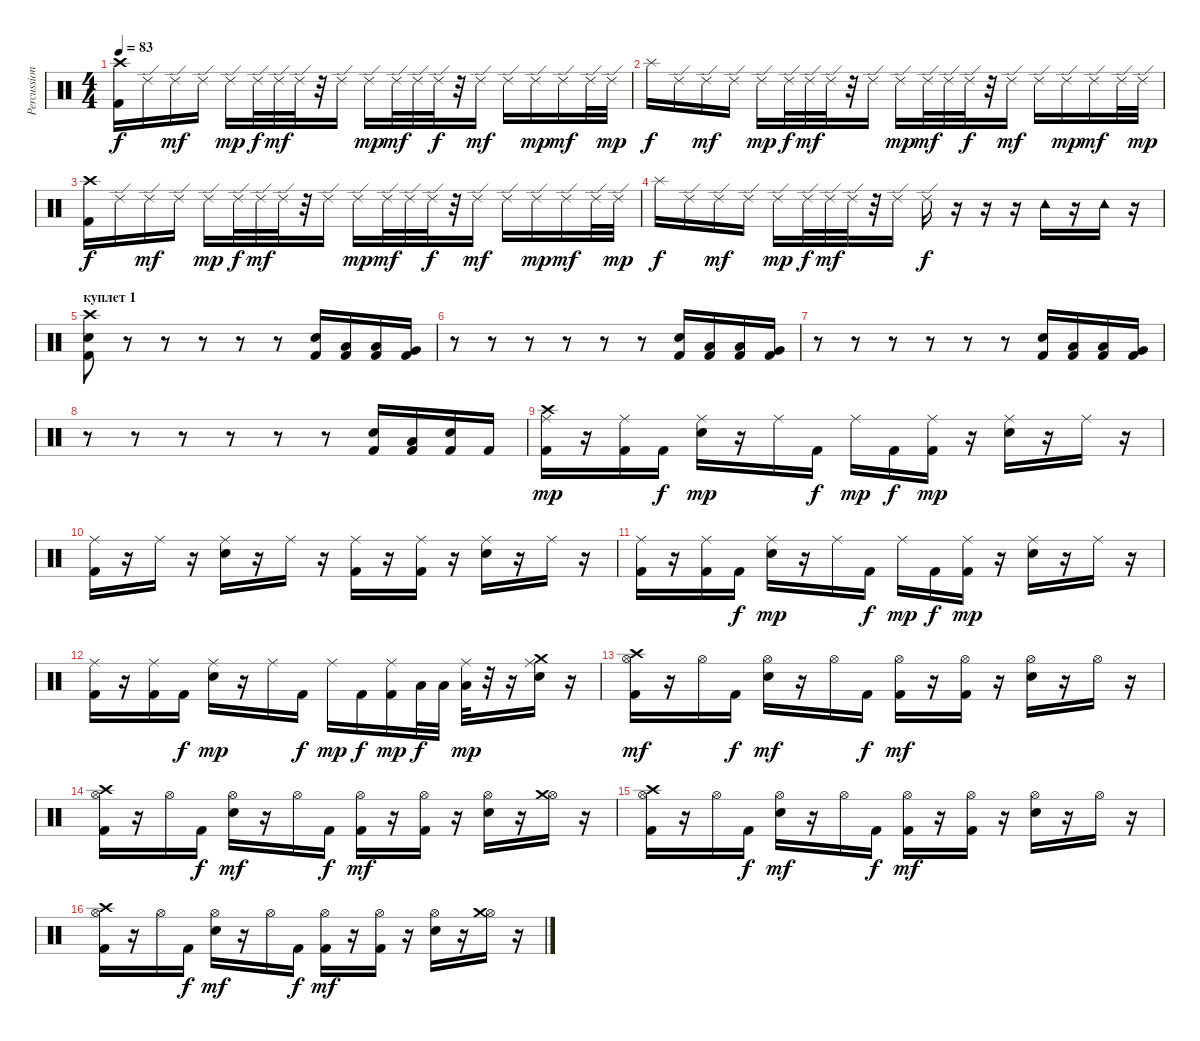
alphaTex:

\track ("Percussion" "Percussion") {instrument percussion}
\staff {score}
\articulation defaults
\ts (4 4)
\tempo 83
\clef neutral
\ks c
("Crash high (hit)" "Kick (hit) 2").16{dy f} "Ride (edge) 2".16 "Ride (edge) 2".16{dy mf} "Ride (edge) 2".16 "Ride (edge) 2".16{dy mp} "Ride (edge) 2".32{dy f} "Ride (edge) 2".32{dy mf} "Ride (edge) 2".32 r.32 "Ride (edge) 2".16 "Ride (edge) 2".16{dy mp} "Ride (edge) 2".32{dy mf} "Ride (edge) 2".32 "Ride (edge) 2".32{dy f} r.32 "Ride (edge) 2".16{dy mf} "Ride (edge) 2".16 "Ride (edge) 2".16{dy mp} "Ride (edge) 2".16{dy mf} "Ride (edge) 2".32 "Ride (edge) 2".32{dy mp} |
"Splash (hit)".16{dy f} "Ride (edge) 2".16 "Ride (edge) 2".16{dy mf} "Ride (edge) 2".16 "Ride (edge) 2".16{dy mp} "Ride (edge) 2".32{dy f} "Ride (edge) 2".32{dy mf} "Ride (edge) 2".32 r.32 "Ride (edge) 2".16 "Ride (edge) 2".16{dy mp} "Ride (edge) 2".32{dy mf} "Ride (edge) 2".32 "Ride (edge) 2".32{dy f} r.32 "Ride (edge) 2".16{dy mf} "Ride (edge) 2".16 "Ride (edge) 2".16{dy mp} "Ride (edge) 2".16{dy mf} "Ride (edge) 2".32 "Ride (edge) 2".32{dy mp} |
("Crash high (hit)" "Kick (hit) 2").16{dy f} "Ride (edge) 2".16 "Ride (edge) 2".16{dy mf} "Ride (edge) 2".16 "Ride (edge) 2".16{dy mp} "Ride (edge) 2".32{dy f} "Ride (edge) 2".32{dy mf} "Ride (edge) 2".32 r.32 "Ride (edge) 2".16 "Ride (edge) 2".16{dy mp} "Ride (edge) 2".32{dy mf} "Ride (edge) 2".32 "Ride (edge) 2".32{dy f} r.32 "Ride (edge) 2".16{dy mf} "Ride (edge) 2".16 "Ride (edge) 2".16{dy mp} "Ride (edge) 2".16{dy mf} "Ride (edge) 2".32 "Ride (edge) 2".32{dy mp} |
"Splash (hit)".16{dy f} "Ride (edge) 2".16 "Ride (edge) 2".16{dy mf} "Ride (edge) 2".16 "Ride (edge) 2".16{dy mp} "Ride (edge) 2".32{dy f} "Ride (edge) 2".32{dy mf} "Ride (edge) 2".32 r.32 "Ride (edge) 2".16 "Ride (edge) 2".16{dy f} r.16 r.16 r.16 "Tambourine (hit)".16 r.16 "Tambourine (hit)".16 r.16 |
\section ("" "куплет 1")
("Crash high (hit)" "Electric Snare (hit)" "Kick (hit) 2").8 r.8 r.8 r.8 r.8 r.8 ("Electric Snare (hit)" "Kick (hit) 2").16 ("Low Tom (hit)" "Kick (hit) 2").16 ("Low Tom (hit)" "Kick (hit) 2").16 ("Very Low Tom (hit)" "Kick (hit) 2").16 |
r.8 r.8 r.8 r.8 r.8 r.8 ("Electric Snare (hit)" "Kick (hit) 2").16 ("Low Tom (hit)" "Kick (hit) 2").16 ("Low Tom (hit)" "Kick (hit) 2").16 ("Very Low Tom (hit)" "Kick (hit) 2").16 |
r.8 r.8 r.8 r.8 r.8 r.8 ("Electric Snare (hit)" "Kick (hit) 2").16 ("Low Tom (hit)" "Kick (hit) 2").16 ("Low Tom (hit)" "Kick (hit) 2").16 ("Very Low Tom (hit)" "Kick (hit) 2").16 |
r.8 r.8 r.8 r.8 r.8 r.8 ("Electric Snare (hit)" "Kick (hit) 2").16 ("Low Tom (hit)" "Kick (hit) 2").16 ("Electric Snare (hit)" "Kick (hit) 2").16 "Kick (hit) 2".16 |
("Ride (middle)" "Crash high (hit)" "Kick (hit) 2").16{dy mp} r.16 ("Ride (middle)" "Kick (hit) 2").16 "Kick (hit) 2".16{dy f} ("Ride (middle)" "Electric Snare (hit)").16{dy mp} r.16 "Ride (middle)".16 "Kick (hit) 2".16{dy f} "Ride (middle)".16{dy mp} "Kick (hit) 2".16{dy f} ("Ride (middle)" "Kick (hit) 2").16{dy mp} r.16 ("Ride (middle)" "Electric Snare (hit)").16 r.16 "Ride (middle)".16 r.16 |
("Ride (middle)" "Kick (hit) 2").16 r.16 "Ride (middle)".16 r.16 ("Ride (middle)" "Electric Snare (hit)").16 r.16 "Ride (middle)".16 r.16 ("Ride (middle)" "Kick (hit) 2").16 r.16 ("Ride (middle)" "Kick (hit) 2").16 r.16 ("Ride (middle)" "Electric Snare (hit)").16 r.16 "Ride (middle)".16 r.16 |
("Ride (middle)" "Kick (hit) 2").16 r.16 ("Ride (middle)" "Kick (hit) 2").16 "Kick (hit) 2".16{dy f} ("Ride (middle)" "Electric Snare (hit)").16{dy mp} r.16 "Ride (middle)".16 "Kick (hit) 2".16{dy f} "Ride (middle)".16{dy mp} "Kick (hit) 2".16{dy f} ("Ride (middle)" "Kick (hit) 2").16{dy mp} r.16 ("Ride (middle)" "Electric Snare (hit)").16 r.16 "Ride (middle)".16 r.16 |
("Ride (middle)" "Kick (hit) 2").16 r.16 ("Ride (middle)" "Kick (hit) 2").16 "Kick (hit) 2".16{dy f} ("Ride (middle)" "Electric Snare (hit)").16{dy mp} r.16 "Ride (middle)".16 "Kick (hit) 2".16{dy f} "Ride (middle)".16{dy mp} "Kick (hit) 2".16{dy f} ("Ride (middle)" "Kick (hit) 2").16{dy mp} "Low Tom (hit)".32{dy f} "Low Tom (hit)".32 ("Ride (middle)" "Low Tom (hit)").32{dy mp} r.32 r.16 ("Ride (middle)" "Crash medium (hit)" "Electric Snare (hit)").16 r.16 |
("Hi-Hat (open)" "Crash high (hit)" "Kick (hit) 2").16{dy mf} r.16 "Hi-Hat (open)".16 "Kick (hit) 2".16{dy f} ("Hi-Hat (open)" "Electric Snare (hit)").16{dy mf} r.16 "Hi-Hat (open)".16 "Kick (hit) 2".16{dy f} ("Hi-Hat (open)" "Kick (hit) 2").16{dy mf} r.16 ("Hi-Hat (open)" "Kick (hit) 2").16 r.16 ("Hi-Hat (open)" "Electric Snare (hit)").16 r.16 "Hi-Hat (open)".16 r.16 |
("Hi-Hat (open)" "Crash high (hit)" "Kick (hit) 2").16 r.16 "Hi-Hat (open)".16 "Kick (hit) 2".16{dy f} ("Hi-Hat (open)" "Electric Snare (hit)").16{dy mf} r.16 "Hi-Hat (open)".16 "Kick (hit) 2".16{dy f} ("Hi-Hat (open)" "Kick (hit) 2").16{dy mf} r.16 ("Hi-Hat (open)" "Kick (hit) 2").16 r.16 ("Hi-Hat (open)" "Electric Snare (hit)").16 r.16 ("Hi-Hat (open)" "Crash medium (hit)").16 r.16 |
("Hi-Hat (open)" "Crash high (hit)" "Kick (hit) 2").16 r.16 "Hi-Hat (open)".16 "Kick (hit) 2".16{dy f} ("Hi-Hat (open)" "Electric Snare (hit)").16{dy mf} r.16 "Hi-Hat (open)".16 "Kick (hit) 2".16{dy f} ("Hi-Hat (open)" "Kick (hit) 2").16{dy mf} r.16 ("Hi-Hat (open)" "Kick (hit) 2").16 r.16 ("Hi-Hat (open)" "Electric Snare (hit)").16 r.16 "Hi-Hat (open)".16 r.16 |
("Hi-Hat (open)" "Crash high (hit)" "Kick (hit) 2").16 r.16 "Hi-Hat (open)".16 "Kick (hit) 2".16{dy f} ("Hi-Hat (open)" "Electric Snare (hit)").16{dy mf} r.16 "Hi-Hat (open)".16 "Kick (hit) 2".16{dy f} ("Hi-Hat (open)" "Kick (hit) 2").16{dy mf} r.16 ("Hi-Hat (open)" "Kick (hit) 2").16 r.16 ("Hi-Hat (open)" "Electric Snare (hit)").16 r.16 ("Hi-Hat (open)" "Crash medium (hit)").16 r.16
